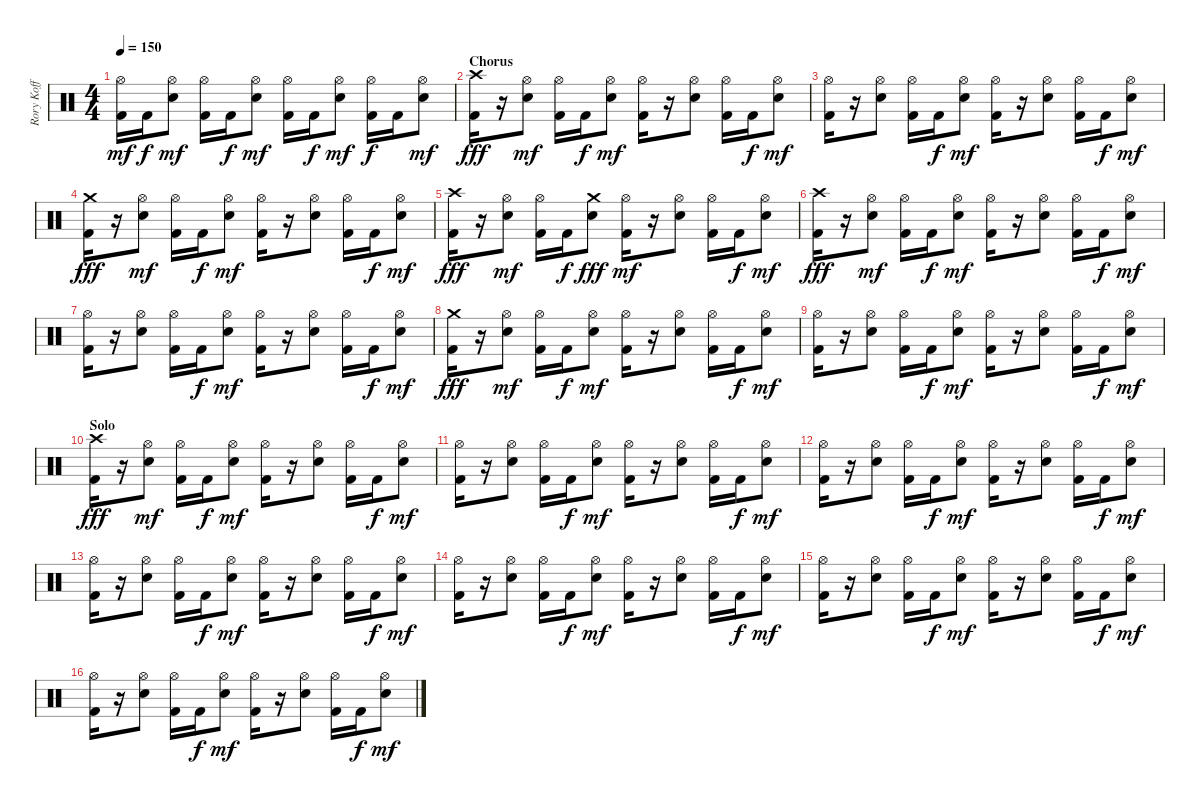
\track ("Rory Koff" "Rory Koff") {instrument percussion}
\staff {score}
\articulation defaults
\ts (4 4)
\tempo 150
\clef neutral
\ks c
("Hi-Hat (open)" "Kick (hit) 2").16{dy mf} "Kick (hit) 2".16{dy f} ("Hi-Hat (open)" "Electric Snare (hit)").8{dy mf} ("Hi-Hat (open)" "Kick (hit) 2").16 "Kick (hit) 2".16{dy f} ("Hi-Hat (open)" "Electric Snare (hit)").8{dy mf} ("Hi-Hat (open)" "Kick (hit) 2").16 "Kick (hit) 2".16{dy f} ("Hi-Hat (open)" "Electric Snare (hit)").8{dy mf} ("Hi-Hat (open)" "Kick (hit) 2").16{dy f} "Kick (hit) 2".16 ("Hi-Hat (open)" "Electric Snare (hit)").8{dy mf} |
\section ("" "Chorus")
("Crash high (hit)" "Kick (hit) 2").16{dy fff} r.16 ("Hi-Hat (open)" "Electric Snare (hit)").8{dy mf} ("Hi-Hat (open)" "Kick (hit) 2").16 "Kick (hit) 2".16{dy f} ("Hi-Hat (open)" "Electric Snare (hit)").8{dy mf} ("Hi-Hat (open)" "Kick (hit) 2").16 r.16 ("Hi-Hat (open)" "Electric Snare (hit)").8 ("Hi-Hat (open)" "Kick (hit) 2").16 "Kick (hit) 2".16{dy f} ("Hi-Hat (open)" "Electric Snare (hit)").8{dy mf} |
("Hi-Hat (open)" "Kick (hit) 2").16 r.16 ("Hi-Hat (open)" "Electric Snare (hit)").8 ("Hi-Hat (open)" "Kick (hit) 2").16 "Kick (hit) 2".16{dy f} ("Hi-Hat (open)" "Electric Snare (hit)").8{dy mf} ("Hi-Hat (open)" "Kick (hit) 2").16 r.16 ("Hi-Hat (open)" "Electric Snare (hit)").8 ("Hi-Hat (open)" "Kick (hit) 2").16 "Kick (hit) 2".16{dy f} ("Hi-Hat (open)" "Electric Snare (hit)").8{dy mf} |
("Crash medium (hit)" "Kick (hit) 2").16{dy fff} r.16 ("Hi-Hat (open)" "Electric Snare (hit)").8{dy mf} ("Hi-Hat (open)" "Kick (hit) 2").16 "Kick (hit) 2".16{dy f} ("Hi-Hat (open)" "Electric Snare (hit)").8{dy mf} ("Hi-Hat (open)" "Kick (hit) 2").16 r.16 ("Hi-Hat (open)" "Electric Snare (hit)").8 ("Hi-Hat (open)" "Kick (hit) 2").16 "Kick (hit) 2".16{dy f} ("Hi-Hat (open)" "Electric Snare (hit)").8{dy mf} |
("Crash high (hit)" "Kick (hit) 2").16{dy fff} r.16 ("Hi-Hat (open)" "Electric Snare (hit)").8{dy mf} ("Hi-Hat (open)" "Kick (hit) 2").16 "Kick (hit) 2".16{dy f} ("Crash medium (hit)" "Electric Snare (hit)").8{dy fff} ("Hi-Hat (open)" "Kick (hit) 2").16{dy mf} r.16 ("Hi-Hat (open)" "Electric Snare (hit)").8 ("Hi-Hat (open)" "Kick (hit) 2").16 "Kick (hit) 2".16{dy f} ("Hi-Hat (open)" "Electric Snare (hit)").8{dy mf} |
("Crash high (hit)" "Kick (hit) 2").16{dy fff} r.16 ("Hi-Hat (open)" "Electric Snare (hit)").8{dy mf} ("Hi-Hat (open)" "Kick (hit) 2").16 "Kick (hit) 2".16{dy f} ("Hi-Hat (open)" "Electric Snare (hit)").8{dy mf} ("Hi-Hat (open)" "Kick (hit) 2").16 r.16 ("Hi-Hat (open)" "Electric Snare (hit)").8 ("Hi-Hat (open)" "Kick (hit) 2").16 "Kick (hit) 2".16{dy f} ("Hi-Hat (open)" "Electric Snare (hit)").8{dy mf} |
("Hi-Hat (open)" "Kick (hit) 2").16 r.16 ("Hi-Hat (open)" "Electric Snare (hit)").8 ("Hi-Hat (open)" "Kick (hit) 2").16 "Kick (hit) 2".16{dy f} ("Hi-Hat (open)" "Electric Snare (hit)").8{dy mf} ("Hi-Hat (open)" "Kick (hit) 2").16 r.16 ("Hi-Hat (open)" "Electric Snare (hit)").8 ("Hi-Hat (open)" "Kick (hit) 2").16 "Kick (hit) 2".16{dy f} ("Hi-Hat (open)" "Electric Snare (hit)").8{dy mf} |
("Crash medium (hit)" "Kick (hit) 2").16{dy fff} r.16 ("Hi-Hat (open)" "Electric Snare (hit)").8{dy mf} ("Hi-Hat (open)" "Kick (hit) 2").16 "Kick (hit) 2".16{dy f} ("Hi-Hat (open)" "Electric Snare (hit)").8{dy mf} ("Hi-Hat (open)" "Kick (hit) 2").16 r.16 ("Hi-Hat (open)" "Electric Snare (hit)").8 ("Hi-Hat (open)" "Kick (hit) 2").16 "Kick (hit) 2".16{dy f} ("Hi-Hat (open)" "Electric Snare (hit)").8{dy mf} |
("Hi-Hat (open)" "Kick (hit) 2").16 r.16 ("Hi-Hat (open)" "Electric Snare (hit)").8 ("Hi-Hat (open)" "Kick (hit) 2").16 "Kick (hit) 2".16{dy f} ("Hi-Hat (open)" "Electric Snare (hit)").8{dy mf} ("Hi-Hat (open)" "Kick (hit) 2").16 r.16 ("Hi-Hat (open)" "Electric Snare (hit)").8 ("Hi-Hat (open)" "Kick (hit) 2").16 "Kick (hit) 2".16{dy f} ("Hi-Hat (open)" "Electric Snare (hit)").8{dy mf} |
\section ("" "Solo")
("Crash high (hit)" "Kick (hit) 2").16{dy fff} r.16 ("Hi-Hat (open)" "Electric Snare (hit)").8{dy mf} ("Hi-Hat (open)" "Kick (hit) 2").16 "Kick (hit) 2".16{dy f} ("Hi-Hat (open)" "Electric Snare (hit)").8{dy mf} ("Hi-Hat (open)" "Kick (hit) 2").16 r.16 ("Hi-Hat (open)" "Electric Snare (hit)").8 ("Hi-Hat (open)" "Kick (hit) 2").16 "Kick (hit) 2".16{dy f} ("Hi-Hat (open)" "Electric Snare (hit)").8{dy mf} |
("Hi-Hat (open)" "Kick (hit) 2").16 r.16 ("Hi-Hat (open)" "Electric Snare (hit)").8 ("Hi-Hat (open)" "Kick (hit) 2").16 "Kick (hit) 2".16{dy f} ("Hi-Hat (open)" "Electric Snare (hit)").8{dy mf} ("Hi-Hat (open)" "Kick (hit) 2").16 r.16 ("Hi-Hat (open)" "Electric Snare (hit)").8 ("Hi-Hat (open)" "Kick (hit) 2").16 "Kick (hit) 2".16{dy f} ("Hi-Hat (open)" "Electric Snare (hit)").8{dy mf} |
("Hi-Hat (open)" "Kick (hit) 2").16 r.16 ("Hi-Hat (open)" "Electric Snare (hit)").8 ("Hi-Hat (open)" "Kick (hit) 2").16 "Kick (hit) 2".16{dy f} ("Hi-Hat (open)" "Electric Snare (hit)").8{dy mf} ("Hi-Hat (open)" "Kick (hit) 2").16 r.16 ("Hi-Hat (open)" "Electric Snare (hit)").8 ("Hi-Hat (open)" "Kick (hit) 2").16 "Kick (hit) 2".16{dy f} ("Hi-Hat (open)" "Electric Snare (hit)").8{dy mf} |
("Hi-Hat (open)" "Kick (hit) 2").16 r.16 ("Hi-Hat (open)" "Electric Snare (hit)").8 ("Hi-Hat (open)" "Kick (hit) 2").16 "Kick (hit) 2".16{dy f} ("Hi-Hat (open)" "Electric Snare (hit)").8{dy mf} ("Hi-Hat (open)" "Kick (hit) 2").16 r.16 ("Hi-Hat (open)" "Electric Snare (hit)").8 ("Hi-Hat (open)" "Kick (hit) 2").16 "Kick (hit) 2".16{dy f} ("Hi-Hat (open)" "Electric Snare (hit)").8{dy mf} |
("Hi-Hat (open)" "Kick (hit) 2").16 r.16 ("Hi-Hat (open)" "Electric Snare (hit)").8 ("Hi-Hat (open)" "Kick (hit) 2").16 "Kick (hit) 2".16{dy f} ("Hi-Hat (open)" "Electric Snare (hit)").8{dy mf} ("Hi-Hat (open)" "Kick (hit) 2").16 r.16 ("Hi-Hat (open)" "Electric Snare (hit)").8 ("Hi-Hat (open)" "Kick (hit) 2").16 "Kick (hit) 2".16{dy f} ("Hi-Hat (open)" "Electric Snare (hit)").8{dy mf} |
("Hi-Hat (open)" "Kick (hit) 2").16 r.16 ("Hi-Hat (open)" "Electric Snare (hit)").8 ("Hi-Hat (open)" "Kick (hit) 2").16 "Kick (hit) 2".16{dy f} ("Hi-Hat (open)" "Electric Snare (hit)").8{dy mf} ("Hi-Hat (open)" "Kick (hit) 2").16 r.16 ("Hi-Hat (open)" "Electric Snare (hit)").8 ("Hi-Hat (open)" "Kick (hit) 2").16 "Kick (hit) 2".16{dy f} ("Hi-Hat (open)" "Electric Snare (hit)").8{dy mf} |
("Hi-Hat (open)" "Kick (hit) 2").16 r.16 ("Hi-Hat (open)" "Electric Snare (hit)").8 ("Hi-Hat (open)" "Kick (hit) 2").16 "Kick (hit) 2".16{dy f} ("Hi-Hat (open)" "Electric Snare (hit)").8{dy mf} ("Hi-Hat (open)" "Kick (hit) 2").16 r.16 ("Hi-Hat (open)" "Electric Snare (hit)").8 ("Hi-Hat (open)" "Kick (hit) 2").16 "Kick (hit) 2".16{dy f} ("Hi-Hat (open)" "Electric Snare (hit)").8{dy mf}
